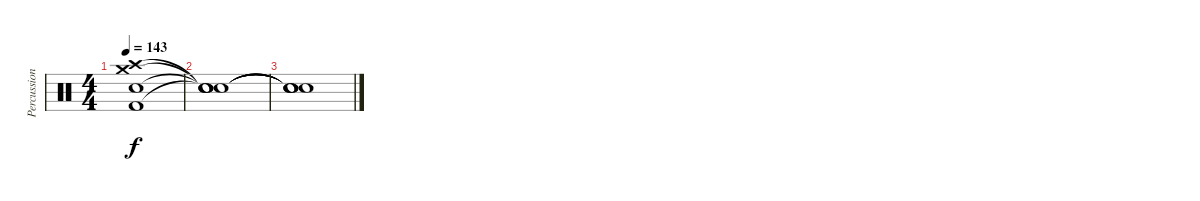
\track ("Percussion" "Percussion") {instrument percussion}
\staff {score}
\articulation defaults
\ts (4 4)
\tempo 143
\clef neutral
\ks c
("Crash high (hit)" "Electric Snare (hit)" "Crash medium (hit)" "Kick (hit) 2").1{dy f} |
("Snare (hit)"{t} "Snare (hit)"{t} "Snare (hit)"{t} "Snare (hit)"{t}).1 |
("Snare (hit)"{t} "Snare (hit)"{t} "Snare (hit)"{t} "Snare (hit)"{t}).1{volume 0}
